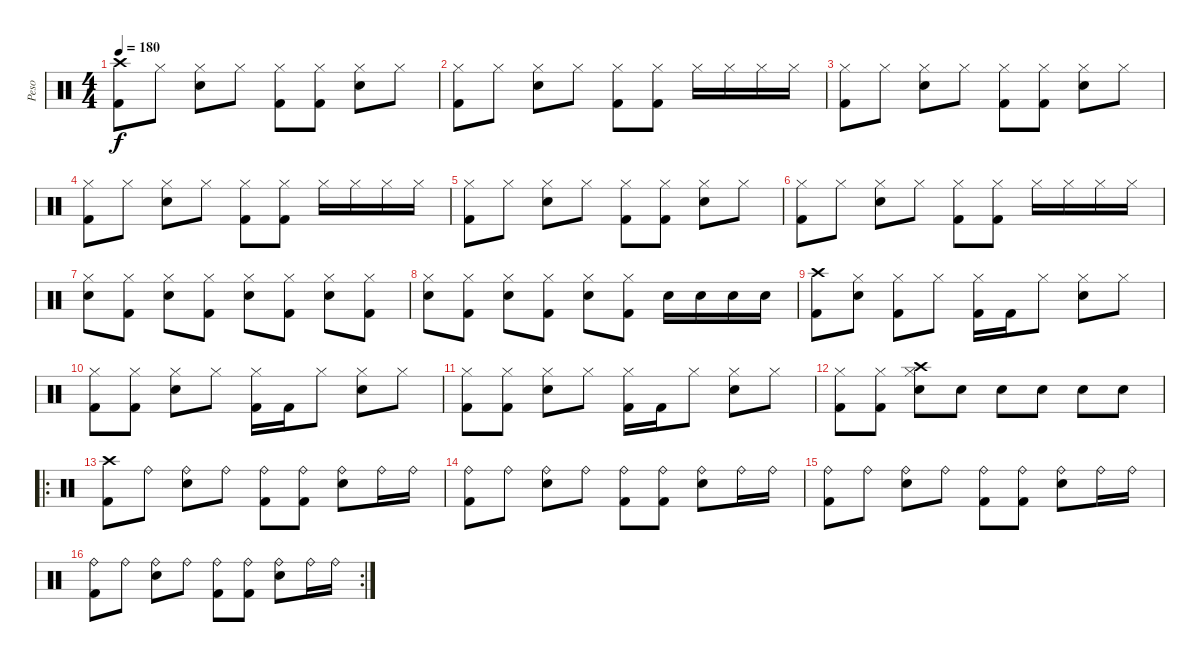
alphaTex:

\track ("Peso" "Peso") {instrument percussion}
\staff {score}
\articulation defaults
\ts (4 4)
\tempo 180
\clef neutral
\ks c
("Crash high (hit)" "Kick (hit) 2").8{dy f} "Hi-Hat (closed)".8 ("Hi-Hat (closed)" "Snare (hit) 2").8 "Hi-Hat (closed)".8 ("Hi-Hat (closed)" "Kick (hit) 2").8 ("Hi-Hat (closed)" "Kick (hit) 2").8 ("Hi-Hat (closed)" "Snare (hit) 2").8 "Hi-Hat (closed)".8 |
("Hi-Hat (closed)" "Kick (hit) 2").8 "Hi-Hat (closed)".8 ("Hi-Hat (closed)" "Snare (hit) 2").8 "Hi-Hat (closed)".8 ("Hi-Hat (closed)" "Kick (hit) 2").8 ("Hi-Hat (closed)" "Kick (hit) 2").8 "Hi-Hat (closed)".16 "Hi-Hat (closed)".16 "Hi-Hat (closed)".16 "Hi-Hat (closed)".16 |
("Hi-Hat (closed)" "Kick (hit) 2").8 "Hi-Hat (closed)".8 ("Hi-Hat (closed)" "Snare (hit) 2").8 "Hi-Hat (closed)".8 ("Hi-Hat (closed)" "Kick (hit) 2").8 ("Hi-Hat (closed)" "Kick (hit) 2").8 ("Hi-Hat (closed)" "Snare (hit) 2").8 "Hi-Hat (closed)".8 |
("Hi-Hat (closed)" "Kick (hit) 2").8 "Hi-Hat (closed)".8 ("Hi-Hat (closed)" "Snare (hit) 2").8 "Hi-Hat (closed)".8 ("Hi-Hat (closed)" "Kick (hit) 2").8 ("Hi-Hat (closed)" "Kick (hit) 2").8 "Hi-Hat (closed)".16 "Hi-Hat (closed)".16 "Hi-Hat (closed)".16 "Hi-Hat (closed)".16 |
("Hi-Hat (closed)" "Kick (hit) 2").8 "Hi-Hat (closed)".8 ("Hi-Hat (closed)" "Snare (hit) 2").8 "Hi-Hat (closed)".8 ("Hi-Hat (closed)" "Kick (hit) 2").8 ("Hi-Hat (closed)" "Kick (hit) 2").8 ("Hi-Hat (closed)" "Snare (hit) 2").8 "Hi-Hat (closed)".8 |
("Hi-Hat (closed)" "Kick (hit) 2").8 "Hi-Hat (closed)".8 ("Hi-Hat (closed)" "Snare (hit) 2").8 "Hi-Hat (closed)".8 ("Hi-Hat (closed)" "Kick (hit) 2").8 ("Hi-Hat (closed)" "Kick (hit) 2").8 "Hi-Hat (closed)".16 "Hi-Hat (closed)".16 "Hi-Hat (closed)".16 "Hi-Hat (closed)".16 |
("Hi-Hat (closed)" "Snare (hit) 2").8 ("Hi-Hat (closed)" "Kick (hit) 2").8 ("Hi-Hat (closed)" "Snare (hit) 2").8 ("Hi-Hat (closed)" "Kick (hit) 2").8 ("Hi-Hat (closed)" "Snare (hit) 2").8 ("Hi-Hat (closed)" "Kick (hit) 2").8 ("Hi-Hat (closed)" "Snare (hit) 2").8 ("Hi-Hat (closed)" "Kick (hit) 2").8 |
("Hi-Hat (closed)" "Snare (hit) 2").8 ("Hi-Hat (closed)" "Kick (hit) 2").8 ("Hi-Hat (closed)" "Snare (hit) 2").8 ("Hi-Hat (closed)" "Kick (hit) 2").8 ("Hi-Hat (closed)" "Snare (hit) 2").8 ("Hi-Hat (closed)" "Kick (hit) 2").8 "Snare (hit) 2".16 "Snare (hit) 2".16 "Snare (hit) 2".16 "Snare (hit) 2".16 |
("Crash high (hit)" "Kick (hit) 2").8 ("Hi-Hat (closed)" "Snare (hit) 2").8 ("Hi-Hat (closed)" "Kick (hit) 2").8 "Hi-Hat (closed)".8 ("Hi-Hat (closed)" "Kick (hit) 2").16 "Kick (hit) 2".16 "Hi-Hat (closed)".8 ("Hi-Hat (closed)" "Snare (hit) 2").8 "Hi-Hat (closed)".8 |
("Hi-Hat (closed)" "Kick (hit) 2").8 ("Hi-Hat (closed)" "Kick (hit) 2").8 ("Hi-Hat (closed)" "Snare (hit) 2").8 "Hi-Hat (closed)".8 ("Hi-Hat (closed)" "Kick (hit) 2").16 "Kick (hit) 2".16 "Hi-Hat (closed)".8 ("Hi-Hat (closed)" "Snare (hit) 2").8 "Hi-Hat (closed)".8 |
("Hi-Hat (closed)" "Kick (hit) 2").8 ("Hi-Hat (closed)" "Kick (hit) 2").8 ("Hi-Hat (closed)" "Snare (hit) 2").8 "Hi-Hat (closed)".8 ("Hi-Hat (closed)" "Kick (hit) 2").16 "Kick (hit) 2".16 "Hi-Hat (closed)".8 ("Hi-Hat (closed)" "Snare (hit) 2").8 "Hi-Hat (closed)".8 |
("Hi-Hat (closed)" "Kick (hit) 2").8 ("Hi-Hat (closed)" "Kick (hit) 2").8 ("Crash high (hit)" "Hi-Hat (closed)" "Snare (hit) 2").8 "Snare (hit)"{x}.8 "Snare (hit)"{x}.8 "Snare (hit)"{x}.8 "Snare (hit)"{x}.8 "Snare (hit)"{x}.8 |
\ro
("Crash high (hit)" "Kick (hit) 2").8 "Ride (bell)".8 ("Ride (bell)" "Snare (hit) 2").8 "Ride (bell)".8 ("Ride (bell)" "Kick (hit) 2").8 ("Ride (bell)" "Kick (hit) 2").8 ("Ride (bell)" "Snare (hit) 2").8 "Ride (bell)".16 "Ride (bell)".16 |
("Ride (bell)" "Kick (hit) 2").8 "Ride (bell)".8 ("Ride (bell)" "Snare (hit) 2").8 "Ride (bell)".8 ("Ride (bell)" "Kick (hit) 2").8 ("Ride (bell)" "Kick (hit) 2").8 ("Ride (bell)" "Snare (hit) 2").8 "Ride (bell)".16 "Ride (bell)".16 |
("Ride (bell)" "Kick (hit) 2").8 "Ride (bell)".8 ("Ride (bell)" "Snare (hit) 2").8 "Ride (bell)".8 ("Ride (bell)" "Kick (hit) 2").8 ("Ride (bell)" "Kick (hit) 2").8 ("Ride (bell)" "Snare (hit) 2").8 "Ride (bell)".16 "Ride (bell)".16 |
\rc 2
("Ride (bell)" "Kick (hit) 2").8 "Ride (bell)".8 ("Ride (bell)" "Snare (hit) 2").8 "Ride (bell)".8 ("Ride (bell)" "Kick (hit) 2").8 ("Ride (bell)" "Kick (hit) 2").8 ("Ride (bell)" "Snare (hit) 2").8 "Ride (bell)".16 "Ride (bell)".16
